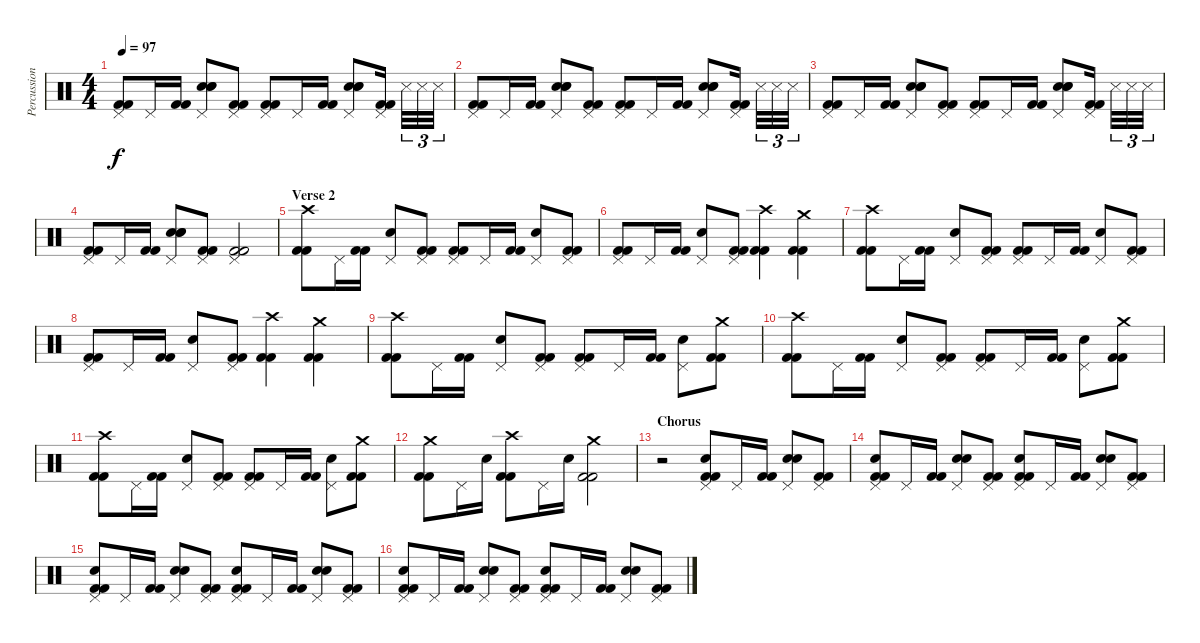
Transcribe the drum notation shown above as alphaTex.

\track ("Percussions" "Percussion") {instrument percussion}
\staff {score}
\articulation defaults
\ts (4 4)
\tempo 97
\clef neutral
\ks c
("Pedal Hi-Hat (hit)" "Kick (hit) 2" "Kick (hit) 2").8{dy f} "Pedal Hi-Hat (hit)".16 ("Kick (hit) 2" "Kick (hit) 2").16 ("Pedal Hi-Hat (hit)" "Hand Clap (hit)" "Hand Clap (hit)" "Hand Clap (hit)").8 ("Pedal Hi-Hat (hit)" "Kick (hit) 2" "Kick (hit) 2").8 ("Pedal Hi-Hat (hit)" "Kick (hit) 2" "Kick (hit) 2").8 "Pedal Hi-Hat (hit)".16 ("Kick (hit) 2" "Kick (hit) 2").16 ("Pedal Hi-Hat (hit)" "Hand Clap (hit)" "Hand Clap (hit)" "Hand Clap (hit)").8 ("Pedal Hi-Hat (hit)" "Kick (hit) 2" "Kick (hit) 2").16 "Snare (side stick) 3".32{tu (3 2)} "Snare (side stick) 3".32{tu (3 2)} "Snare (side stick) 3".32{tu (3 2)} |
("Pedal Hi-Hat (hit)" "Kick (hit) 2" "Kick (hit) 2").8 "Pedal Hi-Hat (hit)".16 ("Kick (hit) 2" "Kick (hit) 2").16 ("Pedal Hi-Hat (hit)" "Hand Clap (hit)" "Hand Clap (hit)" "Hand Clap (hit)").8 ("Pedal Hi-Hat (hit)" "Kick (hit) 2" "Kick (hit) 2").8 ("Pedal Hi-Hat (hit)" "Kick (hit) 2" "Kick (hit) 2").8 "Pedal Hi-Hat (hit)".16 ("Kick (hit) 2" "Kick (hit) 2").16 ("Pedal Hi-Hat (hit)" "Hand Clap (hit)" "Hand Clap (hit)" "Hand Clap (hit)").8 ("Pedal Hi-Hat (hit)" "Kick (hit) 2" "Kick (hit) 2").16 "Snare (side stick) 3".32{tu (3 2)} "Snare (side stick) 3".32{tu (3 2)} "Snare (side stick) 3".32{tu (3 2)} |
("Pedal Hi-Hat (hit)" "Kick (hit) 2" "Kick (hit) 2").8 "Pedal Hi-Hat (hit)".16 ("Kick (hit) 2" "Kick (hit) 2").16 ("Pedal Hi-Hat (hit)" "Hand Clap (hit)" "Hand Clap (hit)" "Hand Clap (hit)").8 ("Pedal Hi-Hat (hit)" "Kick (hit) 2" "Kick (hit) 2").8 ("Pedal Hi-Hat (hit)" "Kick (hit) 2" "Kick (hit) 2").8 "Pedal Hi-Hat (hit)".16 ("Kick (hit) 2" "Kick (hit) 2").16 ("Pedal Hi-Hat (hit)" "Hand Clap (hit)" "Hand Clap (hit)" "Hand Clap (hit)").8 ("Pedal Hi-Hat (hit)" "Kick (hit) 2" "Kick (hit) 2").16 "Snare (side stick) 3".32{tu (3 2)} "Snare (side stick) 3".32{tu (3 2)} "Snare (side stick) 3".32{tu (3 2)} |
("Pedal Hi-Hat (hit)" "Kick (hit) 2" "Kick (hit) 2").8 "Pedal Hi-Hat (hit)".16 ("Kick (hit) 2" "Kick (hit) 2").16 ("Pedal Hi-Hat (hit)" "Hand Clap (hit)" "Hand Clap (hit)" "Hand Clap (hit)").8 ("Pedal Hi-Hat (hit)" "Kick (hit) 2" "Kick (hit) 2").8 ("Pedal Hi-Hat (hit)" "Kick (hit) 2" "Kick (hit) 2").2 |
\section ("" "Verse 2")
("Crash high (hit)" "Kick (hit) 2" "Kick (hit) 2").8 "Pedal Hi-Hat (hit)".16 ("Kick (hit) 2" "Kick (hit) 2").16 ("Pedal Hi-Hat (hit)" "Electric Snare (hit)").8 ("Pedal Hi-Hat (hit)" "Kick (hit) 2" "Kick (hit) 2").8 ("Pedal Hi-Hat (hit)" "Kick (hit) 2" "Kick (hit) 2").8 "Pedal Hi-Hat (hit)".16 ("Kick (hit) 2" "Kick (hit) 2").16 ("Pedal Hi-Hat (hit)" "Electric Snare (hit)").8 ("Pedal Hi-Hat (hit)" "Kick (hit) 2" "Kick (hit) 2").8 |
("Pedal Hi-Hat (hit)" "Kick (hit) 2" "Kick (hit) 2").8 "Pedal Hi-Hat (hit)".16 ("Kick (hit) 2" "Kick (hit) 2").16 ("Pedal Hi-Hat (hit)" "Electric Snare (hit)").8 ("Pedal Hi-Hat (hit)" "Kick (hit) 2" "Kick (hit) 2").8 ("Crash high (hit)" "Kick (hit) 2" "Kick (hit) 2").4 ("Crash medium (hit)" "Kick (hit) 2" "Kick (hit) 2").4 |
("Crash high (hit)" "Kick (hit) 2" "Kick (hit) 2").8 "Pedal Hi-Hat (hit)".16 ("Kick (hit) 2" "Kick (hit) 2").16 ("Pedal Hi-Hat (hit)" "Electric Snare (hit)").8 ("Pedal Hi-Hat (hit)" "Kick (hit) 2" "Kick (hit) 2").8 ("Pedal Hi-Hat (hit)" "Kick (hit) 2" "Kick (hit) 2").8 "Pedal Hi-Hat (hit)".16 ("Kick (hit) 2" "Kick (hit) 2").16 ("Pedal Hi-Hat (hit)" "Electric Snare (hit)").8 ("Pedal Hi-Hat (hit)" "Kick (hit) 2" "Kick (hit) 2").8 |
("Pedal Hi-Hat (hit)" "Kick (hit) 2" "Kick (hit) 2").8 "Pedal Hi-Hat (hit)".16 ("Kick (hit) 2" "Kick (hit) 2").16 ("Pedal Hi-Hat (hit)" "Electric Snare (hit)").8 ("Pedal Hi-Hat (hit)" "Kick (hit) 2" "Kick (hit) 2").8 ("Crash high (hit)" "Kick (hit) 2" "Kick (hit) 2").4 ("Crash medium (hit)" "Kick (hit) 2" "Kick (hit) 2").4 |
("Crash high (hit)" "Kick (hit) 2" "Kick (hit) 2").8 "Pedal Hi-Hat (hit)".16 ("Kick (hit) 2" "Kick (hit) 2").16 ("Pedal Hi-Hat (hit)" "Electric Snare (hit)").8 ("Pedal Hi-Hat (hit)" "Kick (hit) 2" "Kick (hit) 2").8 ("Pedal Hi-Hat (hit)" "Kick (hit) 2" "Kick (hit) 2").8 "Pedal Hi-Hat (hit)".16 ("Kick (hit) 2" "Kick (hit) 2").16 ("Pedal Hi-Hat (hit)" "Electric Snare (hit)").8 ("Crash medium (hit)" "Kick (hit) 2" "Kick (hit) 2").8 |
("Crash high (hit)" "Kick (hit) 2" "Kick (hit) 2").8 "Pedal Hi-Hat (hit)".16 ("Kick (hit) 2" "Kick (hit) 2").16 ("Pedal Hi-Hat (hit)" "Electric Snare (hit)").8 ("Pedal Hi-Hat (hit)" "Kick (hit) 2" "Kick (hit) 2").8 ("Pedal Hi-Hat (hit)" "Kick (hit) 2" "Kick (hit) 2").8 "Pedal Hi-Hat (hit)".16 ("Kick (hit) 2" "Kick (hit) 2").16 ("Pedal Hi-Hat (hit)" "Electric Snare (hit)").8 ("Crash medium (hit)" "Kick (hit) 2" "Kick (hit) 2").8 |
("Crash high (hit)" "Kick (hit) 2" "Kick (hit) 2").8 "Pedal Hi-Hat (hit)".16 ("Kick (hit) 2" "Kick (hit) 2").16 ("Pedal Hi-Hat (hit)" "Electric Snare (hit)").8 ("Pedal Hi-Hat (hit)" "Kick (hit) 2" "Kick (hit) 2").8 ("Pedal Hi-Hat (hit)" "Kick (hit) 2" "Kick (hit) 2").8 "Pedal Hi-Hat (hit)".16 ("Kick (hit) 2" "Kick (hit) 2").16 ("Pedal Hi-Hat (hit)" "Electric Snare (hit)").8 ("Crash medium (hit)" "Kick (hit) 2" "Kick (hit) 2").8 |
("Crash medium (hit)" "Kick (hit) 2" "Kick (hit) 2").8 "Pedal Hi-Hat (hit)".16 "Electric Snare (hit)".16 ("Crash high (hit)" "Kick (hit) 2" "Kick (hit) 2").8 "Pedal Hi-Hat (hit)".16 "Electric Snare (hit)".16 ("Crash medium (hit)" "Kick (hit) 2" "Kick (hit) 2").2 |
\section ("" "Chorus")
r.2 ("Pedal Hi-Hat (hit)" "Hand Clap (hit)" "Kick (hit) 2" "Kick (hit) 2").8 "Pedal Hi-Hat (hit)".16 ("Kick (hit) 2" "Kick (hit) 2").16 ("Pedal Hi-Hat (hit)" "Electric Snare (hit)" "Hand Clap (hit)").8 ("Pedal Hi-Hat (hit)" "Kick (hit) 2" "Kick (hit) 2").8 |
("Pedal Hi-Hat (hit)" "Hand Clap (hit)" "Kick (hit) 2" "Kick (hit) 2").8 "Pedal Hi-Hat (hit)".16 ("Kick (hit) 2" "Kick (hit) 2").16 ("Pedal Hi-Hat (hit)" "Electric Snare (hit)" "Hand Clap (hit)").8 ("Pedal Hi-Hat (hit)" "Kick (hit) 2" "Kick (hit) 2").8 ("Pedal Hi-Hat (hit)" "Hand Clap (hit)" "Kick (hit) 2" "Kick (hit) 2").8 "Pedal Hi-Hat (hit)".16 ("Kick (hit) 2" "Kick (hit) 2").16 ("Pedal Hi-Hat (hit)" "Electric Snare (hit)" "Hand Clap (hit)").8 ("Pedal Hi-Hat (hit)" "Kick (hit) 2" "Kick (hit) 2").8 |
("Pedal Hi-Hat (hit)" "Hand Clap (hit)" "Kick (hit) 2" "Kick (hit) 2").8 "Pedal Hi-Hat (hit)".16 ("Kick (hit) 2" "Kick (hit) 2").16 ("Pedal Hi-Hat (hit)" "Electric Snare (hit)" "Hand Clap (hit)").8 ("Pedal Hi-Hat (hit)" "Kick (hit) 2" "Kick (hit) 2").8 ("Pedal Hi-Hat (hit)" "Hand Clap (hit)" "Kick (hit) 2" "Kick (hit) 2").8 "Pedal Hi-Hat (hit)".16 ("Kick (hit) 2" "Kick (hit) 2").16 ("Pedal Hi-Hat (hit)" "Electric Snare (hit)" "Hand Clap (hit)").8 ("Pedal Hi-Hat (hit)" "Kick (hit) 2" "Kick (hit) 2").8 |
("Pedal Hi-Hat (hit)" "Hand Clap (hit)" "Kick (hit) 2" "Kick (hit) 2").8 "Pedal Hi-Hat (hit)".16 ("Kick (hit) 2" "Kick (hit) 2").16 ("Pedal Hi-Hat (hit)" "Electric Snare (hit)" "Hand Clap (hit)").8 ("Pedal Hi-Hat (hit)" "Kick (hit) 2" "Kick (hit) 2").8 ("Pedal Hi-Hat (hit)" "Hand Clap (hit)" "Kick (hit) 2" "Kick (hit) 2").8 "Pedal Hi-Hat (hit)".16 ("Kick (hit) 2" "Kick (hit) 2").16 ("Pedal Hi-Hat (hit)" "Electric Snare (hit)" "Hand Clap (hit)").8 ("Pedal Hi-Hat (hit)" "Kick (hit) 2" "Kick (hit) 2").8
